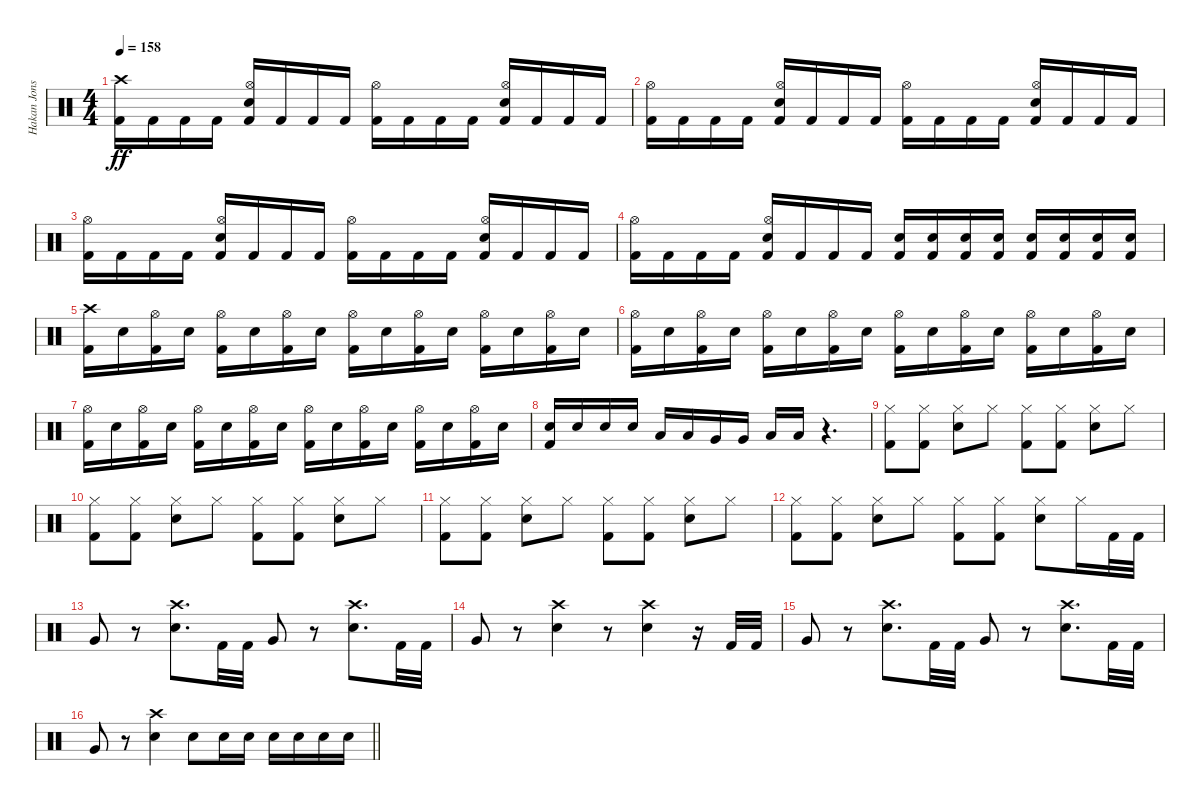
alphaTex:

\track ("Hakan Jonsson" "Hakan Jons") {instrument percussion}
\staff {score}
\articulation defaults
\ts (4 4)
\tempo 158
\clef neutral
\ks c
("Crash high (hit)" "Kick (hit) 2").16{dy ff} "Kick (hit) 2".16 "Kick (hit) 2".16 "Kick (hit) 2".16 ("Hi-Hat (open)" "Electric Snare (hit)" "Kick (hit) 2").16 "Kick (hit) 2".16 "Kick (hit) 2".16 "Kick (hit) 2".16 ("Hi-Hat (open)" "Kick (hit) 2").16 "Kick (hit) 2".16 "Kick (hit) 2".16 "Kick (hit) 2".16 ("Hi-Hat (open)" "Electric Snare (hit)" "Kick (hit) 2").16 "Kick (hit) 2".16 "Kick (hit) 2".16 "Kick (hit) 2".16 |
("Hi-Hat (open)" "Kick (hit) 2").16 "Kick (hit) 2".16 "Kick (hit) 2".16 "Kick (hit) 2".16 ("Hi-Hat (open)" "Electric Snare (hit)" "Kick (hit) 2").16 "Kick (hit) 2".16 "Kick (hit) 2".16 "Kick (hit) 2".16 ("Hi-Hat (open)" "Kick (hit) 2").16 "Kick (hit) 2".16 "Kick (hit) 2".16 "Kick (hit) 2".16 ("Hi-Hat (open)" "Electric Snare (hit)" "Kick (hit) 2").16 "Kick (hit) 2".16 "Kick (hit) 2".16 "Kick (hit) 2".16 |
("Hi-Hat (open)" "Kick (hit) 2").16 "Kick (hit) 2".16 "Kick (hit) 2".16 "Kick (hit) 2".16 ("Hi-Hat (open)" "Electric Snare (hit)" "Kick (hit) 2").16 "Kick (hit) 2".16 "Kick (hit) 2".16 "Kick (hit) 2".16 ("Hi-Hat (open)" "Kick (hit) 2").16 "Kick (hit) 2".16 "Kick (hit) 2".16 "Kick (hit) 2".16 ("Hi-Hat (open)" "Electric Snare (hit)" "Kick (hit) 2").16 "Kick (hit) 2".16 "Kick (hit) 2".16 "Kick (hit) 2".16 |
("Hi-Hat (open)" "Kick (hit) 2").16 "Kick (hit) 2".16 "Kick (hit) 2".16 "Kick (hit) 2".16 ("Hi-Hat (open)" "Electric Snare (hit)" "Kick (hit) 2").16 "Kick (hit) 2".16 "Kick (hit) 2".16 "Kick (hit) 2".16 ("Electric Snare (hit)" "Kick (hit) 2").16 ("Electric Snare (hit)" "Kick (hit) 2").16 ("Electric Snare (hit)" "Kick (hit) 2").16 ("Electric Snare (hit)" "Kick (hit) 2").16 ("Electric Snare (hit)" "Kick (hit) 2").16 ("Electric Snare (hit)" "Kick (hit) 2").16 ("Electric Snare (hit)" "Kick (hit) 2").16 ("Electric Snare (hit)" "Kick (hit) 2").16 |
("Crash high (hit)" "Kick (hit) 2").16 "Electric Snare (hit)".16 ("Hi-Hat (open)" "Kick (hit) 2").16 "Electric Snare (hit)".16 ("Hi-Hat (open)" "Kick (hit) 2").16 "Electric Snare (hit)".16 ("Hi-Hat (open)" "Kick (hit) 2").16 "Electric Snare (hit)".16 ("Hi-Hat (open)" "Kick (hit) 2").16 "Electric Snare (hit)".16 ("Hi-Hat (open)" "Kick (hit) 2").16 "Electric Snare (hit)".16 ("Hi-Hat (open)" "Kick (hit) 2").16 "Electric Snare (hit)".16 ("Hi-Hat (open)" "Kick (hit) 2").16 "Electric Snare (hit)".16 |
("Hi-Hat (open)" "Kick (hit) 2").16 "Electric Snare (hit)".16 ("Hi-Hat (open)" "Kick (hit) 2").16 "Electric Snare (hit)".16 ("Hi-Hat (open)" "Kick (hit) 2").16 "Electric Snare (hit)".16 ("Hi-Hat (open)" "Kick (hit) 2").16 "Electric Snare (hit)".16 ("Hi-Hat (open)" "Kick (hit) 2").16 "Electric Snare (hit)".16 ("Hi-Hat (open)" "Kick (hit) 2").16 "Electric Snare (hit)".16 ("Hi-Hat (open)" "Kick (hit) 2").16 "Electric Snare (hit)".16 ("Hi-Hat (open)" "Kick (hit) 2").16 "Electric Snare (hit)".16 |
("Hi-Hat (open)" "Kick (hit) 2").16 "Electric Snare (hit)".16 ("Hi-Hat (open)" "Kick (hit) 2").16 "Electric Snare (hit)".16 ("Hi-Hat (open)" "Kick (hit) 2").16 "Electric Snare (hit)".16 ("Hi-Hat (open)" "Kick (hit) 2").16 "Electric Snare (hit)".16 ("Hi-Hat (open)" "Kick (hit) 2").16 "Electric Snare (hit)".16 ("Hi-Hat (open)" "Kick (hit) 2").16 "Electric Snare (hit)".16 ("Hi-Hat (open)" "Kick (hit) 2").16 "Electric Snare (hit)".16 ("Hi-Hat (open)" "Kick (hit) 2").16 "Electric Snare (hit)".16 |
("Electric Snare (hit)" "Kick (hit) 2").16 "Electric Snare (hit)".16 "Electric Snare (hit)".16 "Electric Snare (hit)".16 "Low Tom (hit)".16 "Low Tom (hit)".16 "Very Low Tom (hit)".16 "Very Low Tom (hit)".16 "Low Floor Tom (hit)".16 "Low Floor Tom (hit)".16 r.4{d} |
("Hi-Hat (closed)" "Kick (hit) 2").8 ("Hi-Hat (closed)" "Kick (hit) 2").8 ("Hi-Hat (closed)" "Electric Snare (hit)").8 "Hi-Hat (closed)".8 ("Hi-Hat (closed)" "Kick (hit) 2").8 ("Hi-Hat (closed)" "Kick (hit) 2").8 ("Hi-Hat (closed)" "Electric Snare (hit)").8 "Hi-Hat (closed)".8 |
("Hi-Hat (closed)" "Kick (hit) 2").8 ("Hi-Hat (closed)" "Kick (hit) 2").8 ("Hi-Hat (closed)" "Electric Snare (hit)").8 "Hi-Hat (closed)".8 ("Hi-Hat (closed)" "Kick (hit) 2").8 ("Hi-Hat (closed)" "Kick (hit) 2").8 ("Hi-Hat (closed)" "Electric Snare (hit)").8 "Hi-Hat (closed)".8 |
("Hi-Hat (closed)" "Kick (hit) 2").8 ("Hi-Hat (closed)" "Kick (hit) 2").8 ("Hi-Hat (closed)" "Electric Snare (hit)").8 "Hi-Hat (closed)".8 ("Hi-Hat (closed)" "Kick (hit) 2").8 ("Hi-Hat (closed)" "Kick (hit) 2").8 ("Hi-Hat (closed)" "Electric Snare (hit)").8 "Hi-Hat (closed)".8 |
("Hi-Hat (closed)" "Kick (hit) 2").8 ("Hi-Hat (closed)" "Kick (hit) 2").8 ("Hi-Hat (closed)" "Electric Snare (hit)").8 "Hi-Hat (closed)".8 ("Hi-Hat (closed)" "Kick (hit) 2").8 ("Hi-Hat (closed)" "Kick (hit) 2").8 ("Hi-Hat (closed)" "Electric Snare (hit)").8 "Hi-Hat (closed)".16 "Kick (hit) 2".32 "Kick (hit) 2".32 |
"Very Low Tom (hit)".8 r.8 ("Crash high (hit)" "Electric Snare (hit)").8{d} "Kick (hit) 2".32 "Kick (hit) 2".32 "Very Low Tom (hit)".8 r.8 ("Crash high (hit)" "Electric Snare (hit)").8{d} "Kick (hit) 2".32 "Kick (hit) 2".32 |
"Very Low Tom (hit)".8 r.8 ("Crash high (hit)" "Electric Snare (hit)").4 r.8 ("Crash high (hit)" "Electric Snare (hit)").4 r.16 "Kick (hit) 2".32 "Kick (hit) 2".32 |
"Very Low Tom (hit)".8 r.8 ("Crash high (hit)" "Electric Snare (hit)").8{d} "Kick (hit) 2".32 "Kick (hit) 2".32 "Very Low Tom (hit)".8 r.8 ("Crash high (hit)" "Electric Snare (hit)").8{d} "Kick (hit) 2".32 "Kick (hit) 2".32 |
\barLineRight lightlight "Very Low Tom (hit)".8
r.8 ("Crash high (hit)" "Electric Snare (hit)").4 "Electric Snare (hit)".8 "Electric Snare (hit)".16 "Electric Snare (hit)".16 "Electric Snare (hit)".16 "Electric Snare (hit)".16 "Electric Snare (hit)".16 "Electric Snare (hit)".16
